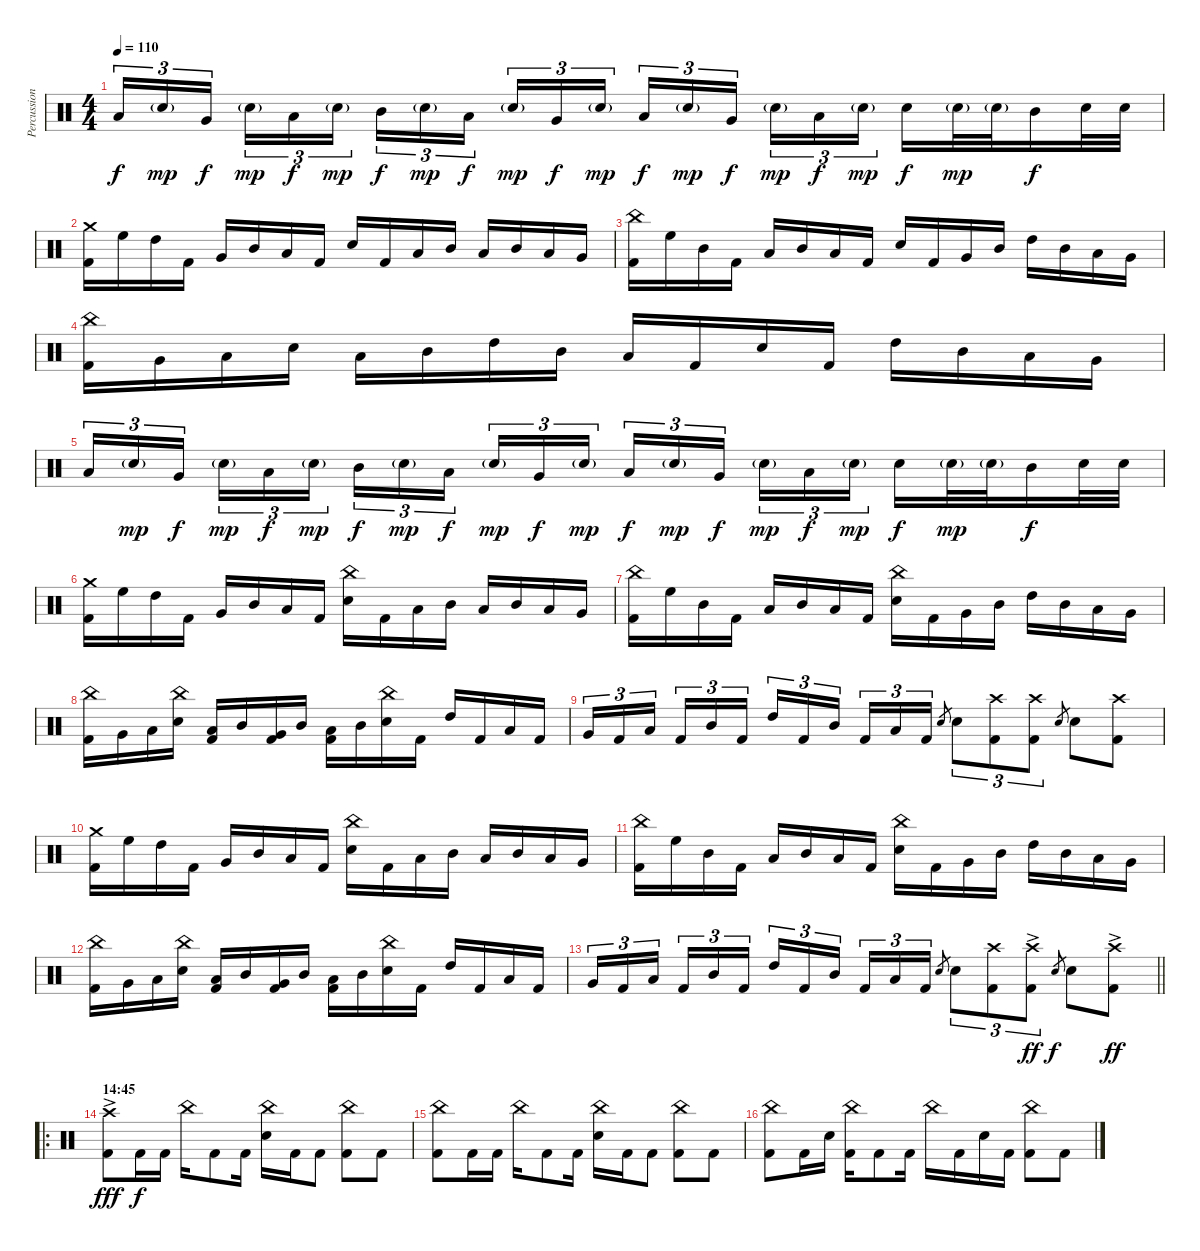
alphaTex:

\track ("Percussion" "Percussion") {instrument percussion}
\staff {score}
\articulation defaults
\ts (4 4)
\tempo 110
\clef neutral
\ks c "Low Floor Tom (hit)".16{tu (3 2) dy f} "Electric Snare (hit)"{g}.16{tu (3 2) dy mp} "Very Low Tom (hit)".16{tu (3 2) dy f} "Electric Snare (hit)"{g}.16{tu (3 2) dy mp} "Low Tom (hit)".16{tu (3 2) dy f} "Electric Snare (hit)"{g}.16{tu (3 2) dy mp} "Mid Tom (hit)".16{tu (3 2) dy f} "Electric Snare (hit)"{g}.16{tu (3 2) dy mp} "Low Tom (hit)".16{tu (3 2) dy f} "Electric Snare (hit)"{g}.16{tu (3 2) dy mp} "Very Low Tom (hit)".16{tu (3 2) dy f} "Electric Snare (hit)"{g}.16{tu (3 2) dy mp} "Low Floor Tom (hit)".16{tu (3 2) dy f} "Electric Snare (hit)"{g}.16{tu (3 2) dy mp} "Very Low Tom (hit)".16{tu (3 2) dy f} "Electric Snare (hit)"{g}.16{tu (3 2) dy mp} "Low Tom (hit)".16{tu (3 2) dy f} "Electric Snare (hit)"{g}.16{tu (3 2) dy mp} "Electric Snare (hit)".16{dy f} "Electric Snare (hit)"{g}.32{dy mp} "Electric Snare (hit)"{g}.32 "Mid Tom (hit)".16{dy f} "Electric Snare (hit)".32 "Electric Snare (hit)".32
|
("Crash medium (hit)" "Kick (hit) 2").16 "High Floor Tom (hit)".16 "High Tom (hit)".16 "Kick (hit) 2".16 "Very Low Tom (hit)".16 "Mid Tom (hit)".16 "Low Tom (hit)".16 "Kick (hit) 2".16 "Electric Snare (hit)".16 "Kick (hit) 2".16 "Low Tom (hit)".16 "Mid Tom (hit)".16 "Low Floor Tom (hit)".16 "Mid Tom (hit)".16 "Low Tom (hit)".16 "Very Low Tom (hit)".16 |
("Kick (hit) 2" "China (hit)").16 "High Floor Tom (hit)".16 "Mid Tom (hit)".16 "Kick (hit) 2".16 "Low Tom (hit)".16 "Mid Tom (hit)".16 "Low Tom (hit)".16 "Kick (hit) 2".16 "Electric Snare (hit)".16 "Kick (hit) 2".16 "Very Low Tom (hit)".16 "Mid Tom (hit)".16 "High Tom (hit)".16 "Mid Tom (hit)".16 "Low Tom (hit)".16 "Very Low Tom (hit)".16 |
("Kick (hit) 2" "China (hit)").16 "Very Low Tom (hit)".16 "Low Tom (hit)".16 "Electric Snare (hit)".16 "Low Tom (hit)".16 "Mid Tom (hit)".16 "High Tom (hit)".16 "Mid Tom (hit)".16 "Low Tom (hit)".16 "Kick (hit) 2".16 "Electric Snare (hit)".16 "Kick (hit) 2".16 "High Tom (hit)".16 "Mid Tom (hit)".16 "Low Tom (hit)".16 "Very Low Tom (hit)".16 |
"Low Floor Tom (hit)".16{tu (3 2)} "Electric Snare (hit)"{g}.16{tu (3 2) dy mp} "Very Low Tom (hit)".16{tu (3 2) dy f} "Electric Snare (hit)"{g}.16{tu (3 2) dy mp} "Low Tom (hit)".16{tu (3 2) dy f} "Electric Snare (hit)"{g}.16{tu (3 2) dy mp} "Mid Tom (hit)".16{tu (3 2) dy f} "Electric Snare (hit)"{g}.16{tu (3 2) dy mp} "Low Tom (hit)".16{tu (3 2) dy f} "Electric Snare (hit)"{g}.16{tu (3 2) dy mp} "Very Low Tom (hit)".16{tu (3 2) dy f} "Electric Snare (hit)"{g}.16{tu (3 2) dy mp} "Low Floor Tom (hit)".16{tu (3 2) dy f} "Electric Snare (hit)"{g}.16{tu (3 2) dy mp} "Very Low Tom (hit)".16{tu (3 2) dy f} "Electric Snare (hit)"{g}.16{tu (3 2) dy mp} "Low Tom (hit)".16{tu (3 2) dy f} "Electric Snare (hit)"{g}.16{tu (3 2) dy mp} "Electric Snare (hit)".16{dy f} "Electric Snare (hit)"{g}.32{dy mp} "Electric Snare (hit)"{g}.32 "Mid Tom (hit)".16{dy f} "Electric Snare (hit)".32 "Electric Snare (hit)".32 |
("Crash medium (hit)" "Kick (hit) 2").16 "High Floor Tom (hit)".16 "High Tom (hit)".16 "Kick (hit) 2".16 "Very Low Tom (hit)".16 "Mid Tom (hit)".16 "Low Tom (hit)".16 "Kick (hit) 2".16 ("Electric Snare (hit)" "China (hit)").16 "Kick (hit) 2".16 "Low Tom (hit)".16 "Mid Tom (hit)".16 "Low Floor Tom (hit)".16 "Mid Tom (hit)".16 "Low Tom (hit)".16 "Very Low Tom (hit)".16 |
("Kick (hit) 2" "China (hit)").16 "High Floor Tom (hit)".16 "Mid Tom (hit)".16 "Kick (hit) 2".16 "Low Tom (hit)".16 "Mid Tom (hit)".16 "Low Tom (hit)".16 "Kick (hit) 2".16 ("Electric Snare (hit)" "China (hit)").16 "Kick (hit) 2".16 "Very Low Tom (hit)".16 "Mid Tom (hit)".16 "High Tom (hit)".16 "Mid Tom (hit)".16 "Low Tom (hit)".16 "Very Low Tom (hit)".16 |
("Kick (hit) 2" "China (hit)").16 "Very Low Tom (hit)".16 "Low Tom (hit)".16 ("Electric Snare (hit)" "China (hit)").16 ("Kick (hit) 2" "Low Tom (hit)").16 "Mid Tom (hit)".16 ("Kick (hit) 2" "Very Low Tom (hit)").16 "Mid Tom (hit)".16 ("Kick (hit) 2" "Low Tom (hit)").16 "Mid Tom (hit)".16 ("Electric Snare (hit)" "China (hit)").16 "Kick (hit) 2".16 "High Tom (hit)".16 "Kick (hit) 2".16 "Low Tom (hit)".16 "Kick (hit) 2".16 |
"Very Low Tom (hit)".16{tu (3 2)} "Kick (hit) 2".16{tu (3 2)} "Low Tom (hit)".16{tu (3 2)} "Kick (hit) 2".16{tu (3 2)} "Mid Tom (hit)".16{tu (3 2)} "Kick (hit) 2".16{tu (3 2)} "High Tom (hit)".16{tu (3 2)} "Kick (hit) 2".16{tu (3 2)} "Mid Tom (hit)".16{tu (3 2)} "Kick (hit) 2".16{tu (3 2)} "Low Tom (hit)".16{tu (3 2)} "Kick (hit) 2".16{tu (3 2)} "Electric Snare (hit)".8{gr} "Electric Snare (hit)".8{tu (3 2)} ("Crash high (hit)" "Kick (hit) 2").8{tu (3 2)} ("Kick (hit) 2" "Crash high (hit)").8{tu (3 2)} "Electric Snare (hit)".8{gr} "Electric Snare (hit)".8 ("Crash high (hit)" "Kick (hit) 2").8 |
("Crash medium (hit)" "Kick (hit) 2").16 "High Floor Tom (hit)".16 "High Tom (hit)".16 "Kick (hit) 2".16 "Very Low Tom (hit)".16 "Mid Tom (hit)".16 "Low Tom (hit)".16 "Kick (hit) 2".16 ("Electric Snare (hit)" "China (hit)").16 "Kick (hit) 2".16 "Low Tom (hit)".16 "Mid Tom (hit)".16 "Low Floor Tom (hit)".16 "Mid Tom (hit)".16 "Low Tom (hit)".16 "Very Low Tom (hit)".16 |
("Kick (hit) 2" "China (hit)").16 "High Floor Tom (hit)".16 "Mid Tom (hit)".16 "Kick (hit) 2".16 "Low Tom (hit)".16 "Mid Tom (hit)".16 "Low Tom (hit)".16 "Kick (hit) 2".16 ("Electric Snare (hit)" "China (hit)").16 "Kick (hit) 2".16 "Very Low Tom (hit)".16 "Mid Tom (hit)".16 "High Tom (hit)".16 "Mid Tom (hit)".16 "Low Tom (hit)".16 "Very Low Tom (hit)".16 |
("Kick (hit) 2" "China (hit)").16 "Very Low Tom (hit)".16 "Low Tom (hit)".16 ("Electric Snare (hit)" "China (hit)").16 ("Kick (hit) 2" "Low Tom (hit)").16 "Mid Tom (hit)".16 ("Kick (hit) 2" "Very Low Tom (hit)").16 "Mid Tom (hit)".16 ("Kick (hit) 2" "Low Tom (hit)").16 "Mid Tom (hit)".16 ("Electric Snare (hit)" "China (hit)").16 "Kick (hit) 2".16 "High Tom (hit)".16 "Kick (hit) 2".16 "Low Tom (hit)".16 "Kick (hit) 2".16 |
\barLineRight lightlight "Very Low Tom (hit)".16{tu (3 2) volume 13} "Kick (hit) 2".16{tu (3 2)} "Low Tom (hit)".16{tu (3 2)} "Kick (hit) 2".16{tu (3 2)} "Mid Tom (hit)".16{tu (3 2)} "Kick (hit) 2".16{tu (3 2)} "High Tom (hit)".16{tu (3 2)} "Kick (hit) 2".16{tu (3 2)} "Mid Tom (hit)".16{tu (3 2)} "Kick (hit) 2".16{tu (3 2)} "Low Tom (hit)".16{tu (3 2)} "Kick (hit) 2".16{tu (3 2)} "Electric Snare (hit)".8{gr} "Electric Snare (hit)".8{tu (3 2)}
("Crash high (hit)" "Kick (hit) 2").8{tu (3 2)} ("Kick (hit) 2" "Crash high (hit)"{ac}).8{tu (3 2) dy ff} "Electric Snare (hit)".8{gr dy f} "Electric Snare (hit)".8 ("Crash high (hit)"{ac} "Kick (hit) 2").8{dy ff} |
\ro
\section ("" "14:45")
("Crash high (hit)"{ac} "Kick (hit) 2").8{dy fff volume 14} "Kick (hit) 2".16{dy f} "Kick (hit) 2".16 "China (hit)".16 "Kick (hit) 2".8 "Kick (hit) 2".16 ("China (hit)" "Electric Snare (hit)").16 "Kick (hit) 2".16 "Kick (hit) 2".8 ("China (hit)" "Kick (hit) 2").8 "Kick (hit) 2".8 |
("China (hit)" "Kick (hit) 2").8 "Kick (hit) 2".16 "Kick (hit) 2".16 "China (hit)".16 "Kick (hit) 2".8 "Kick (hit) 2".16 ("China (hit)" "Electric Snare (hit)").16 "Kick (hit) 2".16 "Kick (hit) 2".8 ("China (hit)" "Kick (hit) 2").8 "Kick (hit) 2".8 |
("Kick (hit) 2" "China (hit)").8 "Kick (hit) 2".16 "Electric Snare (hit)".16 ("China (hit)" "Kick (hit) 2").16 "Kick (hit) 2".8 "Kick (hit) 2".16 "China (hit)".16 "Kick (hit) 2".16 "Electric Snare (hit)".16 "Kick (hit) 2".16 ("Kick (hit) 2" "China (hit)").8 "Kick (hit) 2".8
